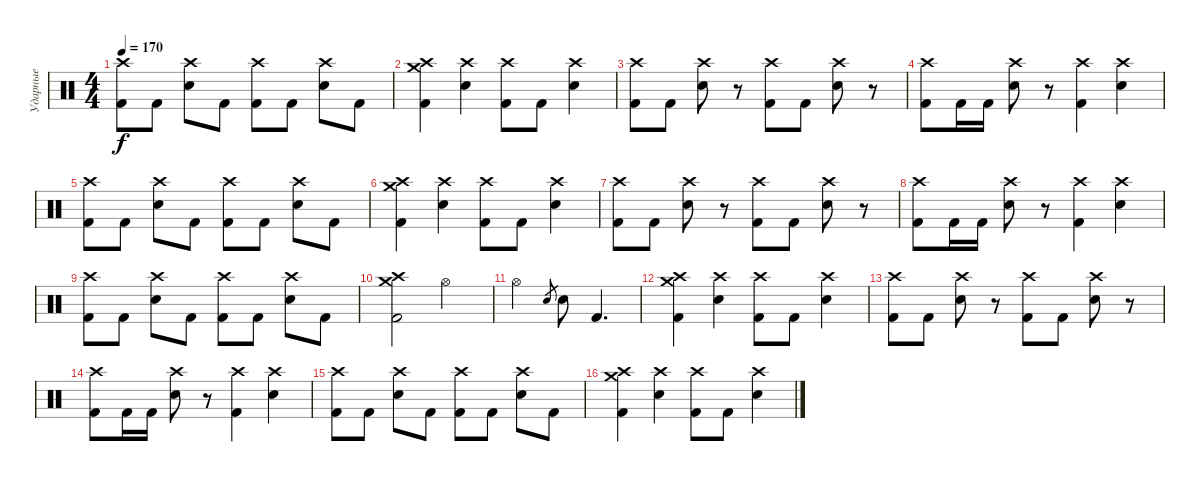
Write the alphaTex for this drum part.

\track ("Ударные" "Ударные") {instrument percussion}
\staff {score}
\articulation defaults
\ts (4 4)
\tempo 170
\clef neutral
\ks c
("Crash high (hit)" "Kick (hit) 2").8{dy f} "Kick (hit) 2".8 ("Crash high (hit)" "Electric Snare (hit)").8 "Kick (hit) 2".8 ("Crash high (hit)" "Kick (hit) 2").8 "Kick (hit) 2".8 ("Crash high (hit)" "Electric Snare (hit)").8 "Kick (hit) 2".8 |
("Crash medium (hit)" "Crash high (hit)" "Kick (hit) 2").4 ("Crash high (hit)" "Electric Snare (hit)").4 ("Crash high (hit)" "Kick (hit) 2").8 "Kick (hit) 2".8 ("Crash high (hit)" "Electric Snare (hit)").4 |
("Crash high (hit)" "Kick (hit) 2").8 "Kick (hit) 2".8 ("Crash high (hit)" "Electric Snare (hit)").8 r.8 ("Crash high (hit)" "Kick (hit) 2").8 "Kick (hit) 2".8 ("Crash high (hit)" "Electric Snare (hit)").8 r.8 |
("Crash high (hit)" "Kick (hit) 2").8 "Kick (hit) 2".16 "Kick (hit) 2".16 ("Crash high (hit)" "Electric Snare (hit)").8 r.8 ("Crash high (hit)" "Kick (hit) 2").4 ("Crash high (hit)" "Electric Snare (hit)").4 |
("Crash high (hit)" "Kick (hit) 2").8 "Kick (hit) 2".8 ("Crash high (hit)" "Electric Snare (hit)").8 "Kick (hit) 2".8 ("Crash high (hit)" "Kick (hit) 2").8 "Kick (hit) 2".8 ("Crash high (hit)" "Electric Snare (hit)").8 "Kick (hit) 2".8 |
("Crash medium (hit)" "Crash high (hit)" "Kick (hit) 2").4 ("Crash high (hit)" "Electric Snare (hit)").4 ("Crash high (hit)" "Kick (hit) 2").8 "Kick (hit) 2".8 ("Crash high (hit)" "Electric Snare (hit)").4 |
("Crash high (hit)" "Kick (hit) 2").8 "Kick (hit) 2".8 ("Crash high (hit)" "Electric Snare (hit)").8 r.8 ("Crash high (hit)" "Kick (hit) 2").8 "Kick (hit) 2".8 ("Crash high (hit)" "Electric Snare (hit)").8 r.8 |
("Crash high (hit)" "Kick (hit) 2").8 "Kick (hit) 2".16 "Kick (hit) 2".16 ("Crash high (hit)" "Electric Snare (hit)").8 r.8 ("Crash high (hit)" "Kick (hit) 2").4 ("Crash high (hit)" "Electric Snare (hit)").4 |
("Crash high (hit)" "Kick (hit) 2").8 "Kick (hit) 2".8 ("Crash high (hit)" "Electric Snare (hit)").8 "Kick (hit) 2".8 ("Crash high (hit)" "Kick (hit) 2").8 "Kick (hit) 2".8 ("Crash high (hit)" "Electric Snare (hit)").8 "Kick (hit) 2".8 |
("Crash medium (hit)" "Crash high (hit)" "Kick (hit) 2").2 "Hi-Hat (open)".2 |
"Hi-Hat (open)".2 "Electric Snare (hit)".8{gr} "Electric Snare (hit)".8 "Kick (hit) 2".4{d} |
("Crash medium (hit)" "Crash high (hit)" "Kick (hit) 2").4 ("Crash high (hit)" "Electric Snare (hit)").4 ("Crash high (hit)" "Kick (hit) 2").8 "Kick (hit) 2".8 ("Crash high (hit)" "Electric Snare (hit)").4 |
("Crash high (hit)" "Kick (hit) 2").8 "Kick (hit) 2".8 ("Crash high (hit)" "Electric Snare (hit)").8 r.8 ("Crash high (hit)" "Kick (hit) 2").8 "Kick (hit) 2".8 ("Crash high (hit)" "Electric Snare (hit)").8 r.8 |
("Crash high (hit)" "Kick (hit) 2").8 "Kick (hit) 2".16 "Kick (hit) 2".16 ("Crash high (hit)" "Electric Snare (hit)").8 r.8 ("Crash high (hit)" "Kick (hit) 2").4 ("Crash high (hit)" "Electric Snare (hit)").4 |
("Crash high (hit)" "Kick (hit) 2").8 "Kick (hit) 2".8 ("Crash high (hit)" "Electric Snare (hit)").8 "Kick (hit) 2".8 ("Crash high (hit)" "Kick (hit) 2").8 "Kick (hit) 2".8 ("Crash high (hit)" "Electric Snare (hit)").8 "Kick (hit) 2".8 |
("Crash medium (hit)" "Crash high (hit)" "Kick (hit) 2").4 ("Crash high (hit)" "Electric Snare (hit)").4 ("Crash high (hit)" "Kick (hit) 2").8 "Kick (hit) 2".8 ("Crash high (hit)" "Electric Snare (hit)").4
